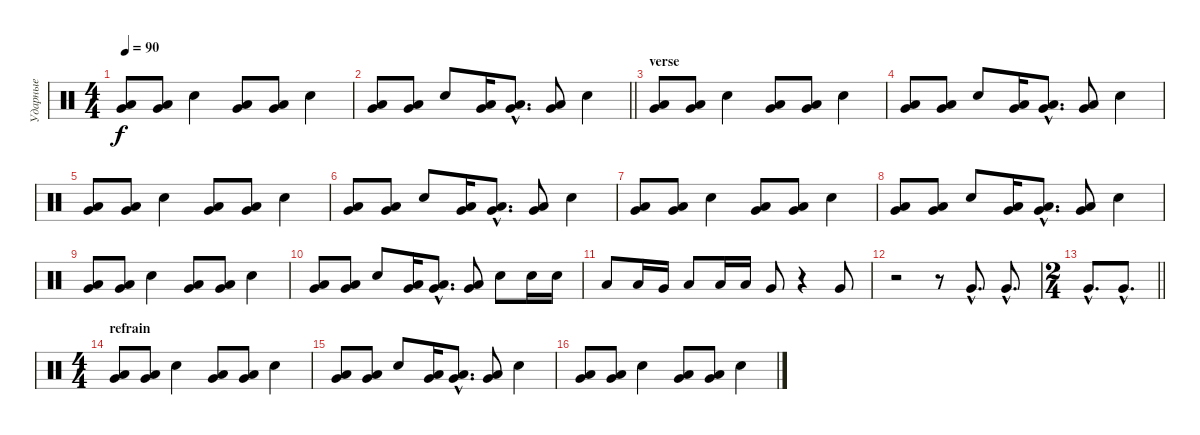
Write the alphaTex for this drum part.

\track ("Ударные" "Ударные") {instrument percussion}
\staff {score}
\articulation defaults
\ts (4 4)
\tempo 90
\clef neutral
\ks c
("Low Floor Tom (hit)" "Very Low Tom (hit)").8{dy f} ("Low Floor Tom (hit)" "Very Low Tom (hit)").8 "Snare (hit) 2".4 ("Low Floor Tom (hit)" "Very Low Tom (hit)").8 ("Low Floor Tom (hit)" "Very Low Tom (hit)").8 "Snare (hit) 2".4 |
\barLineRight lightlight
("Low Floor Tom (hit)" "Very Low Tom (hit)").8 ("Low Floor Tom (hit)" "Very Low Tom (hit)").8 "Snare (hit) 2".8 ("Low Floor Tom (hit)" "Very Low Tom (hit)").16 ("Low Floor Tom (hit)"{hac} "Very Low Tom (hit)"{hac}).8{d} ("Low Floor Tom (hit)" "Very Low Tom (hit)").8 "Snare (hit) 2".4 |
\section ("" "verse")
("Low Floor Tom (hit)" "Very Low Tom (hit)").8 ("Low Floor Tom (hit)" "Very Low Tom (hit)").8 "Snare (hit) 2".4 ("Low Floor Tom (hit)" "Very Low Tom (hit)").8 ("Low Floor Tom (hit)" "Very Low Tom (hit)").8 "Snare (hit) 2".4 |
("Low Floor Tom (hit)" "Very Low Tom (hit)").8 ("Low Floor Tom (hit)" "Very Low Tom (hit)").8 "Snare (hit) 2".8 ("Low Floor Tom (hit)" "Very Low Tom (hit)").16 ("Low Floor Tom (hit)"{hac} "Very Low Tom (hit)"{hac}).8{d} ("Low Floor Tom (hit)" "Very Low Tom (hit)").8 "Snare (hit) 2".4 |
("Low Floor Tom (hit)" "Very Low Tom (hit)").8 ("Low Floor Tom (hit)" "Very Low Tom (hit)").8 "Snare (hit) 2".4 ("Low Floor Tom (hit)" "Very Low Tom (hit)").8 ("Low Floor Tom (hit)" "Very Low Tom (hit)").8 "Snare (hit) 2".4 |
("Low Floor Tom (hit)" "Very Low Tom (hit)").8 ("Low Floor Tom (hit)" "Very Low Tom (hit)").8 "Snare (hit) 2".8 ("Low Floor Tom (hit)" "Very Low Tom (hit)").16 ("Low Floor Tom (hit)"{hac} "Very Low Tom (hit)"{hac}).8{d} ("Low Floor Tom (hit)" "Very Low Tom (hit)").8 "Snare (hit) 2".4 |
("Low Floor Tom (hit)" "Very Low Tom (hit)").8 ("Low Floor Tom (hit)" "Very Low Tom (hit)").8 "Snare (hit) 2".4 ("Low Floor Tom (hit)" "Very Low Tom (hit)").8 ("Low Floor Tom (hit)" "Very Low Tom (hit)").8 "Snare (hit) 2".4 |
("Low Floor Tom (hit)" "Very Low Tom (hit)").8 ("Low Floor Tom (hit)" "Very Low Tom (hit)").8 "Snare (hit) 2".8 ("Low Floor Tom (hit)" "Very Low Tom (hit)").16 ("Low Floor Tom (hit)"{hac} "Very Low Tom (hit)"{hac}).8{d} ("Low Floor Tom (hit)" "Very Low Tom (hit)").8 "Snare (hit) 2".4 |
("Low Floor Tom (hit)" "Very Low Tom (hit)").8 ("Low Floor Tom (hit)" "Very Low Tom (hit)").8 "Snare (hit) 2".4 ("Low Floor Tom (hit)" "Very Low Tom (hit)").8 ("Low Floor Tom (hit)" "Very Low Tom (hit)").8 "Snare (hit) 2".4 |
("Low Floor Tom (hit)" "Very Low Tom (hit)").8 ("Low Floor Tom (hit)" "Very Low Tom (hit)").8 "Snare (hit) 2".8 ("Low Floor Tom (hit)" "Very Low Tom (hit)").16 ("Low Floor Tom (hit)"{hac} "Very Low Tom (hit)"{hac}).8{d} ("Low Floor Tom (hit)" "Very Low Tom (hit)").8 "Snare (hit) 2".8 "Snare (hit) 2".16 "Snare (hit) 2".16 |
"Low Floor Tom (hit)".8 "Low Floor Tom (hit)".16 "Very Low Tom (hit)".16 "Low Floor Tom (hit)".8 "Low Floor Tom (hit)".16 "Low Floor Tom (hit)".16 "Very Low Tom (hit)".8 r.4 "Very Low Tom (hit)".8 |
r.2 r.8 "Very Low Tom (hit)"{hac}.8{d} "Very Low Tom (hit)"{hac}.8{d} |
\ts (2 4)
\barLineRight lightlight "Very Low Tom (hit)"{hac}.8{d} "Very Low Tom (hit)"{hac}.8{d}
|
\ts (4 4)
\section ("" "refrain")
("Low Floor Tom (hit)" "Very Low Tom (hit)").8 ("Low Floor Tom (hit)" "Very Low Tom (hit)").8 "Snare (hit) 2".4 ("Low Floor Tom (hit)" "Very Low Tom (hit)").8 ("Low Floor Tom (hit)" "Very Low Tom (hit)").8 "Snare (hit) 2".4 |
("Low Floor Tom (hit)" "Very Low Tom (hit)").8 ("Low Floor Tom (hit)" "Very Low Tom (hit)").8 "Snare (hit) 2".8 ("Low Floor Tom (hit)" "Very Low Tom (hit)").16 ("Low Floor Tom (hit)"{hac} "Very Low Tom (hit)"{hac}).8{d} ("Low Floor Tom (hit)" "Very Low Tom (hit)").8 "Snare (hit) 2".4 |
("Low Floor Tom (hit)" "Very Low Tom (hit)").8 ("Low Floor Tom (hit)" "Very Low Tom (hit)").8 "Snare (hit) 2".4 ("Low Floor Tom (hit)" "Very Low Tom (hit)").8 ("Low Floor Tom (hit)" "Very Low Tom (hit)").8 "Snare (hit) 2".4
